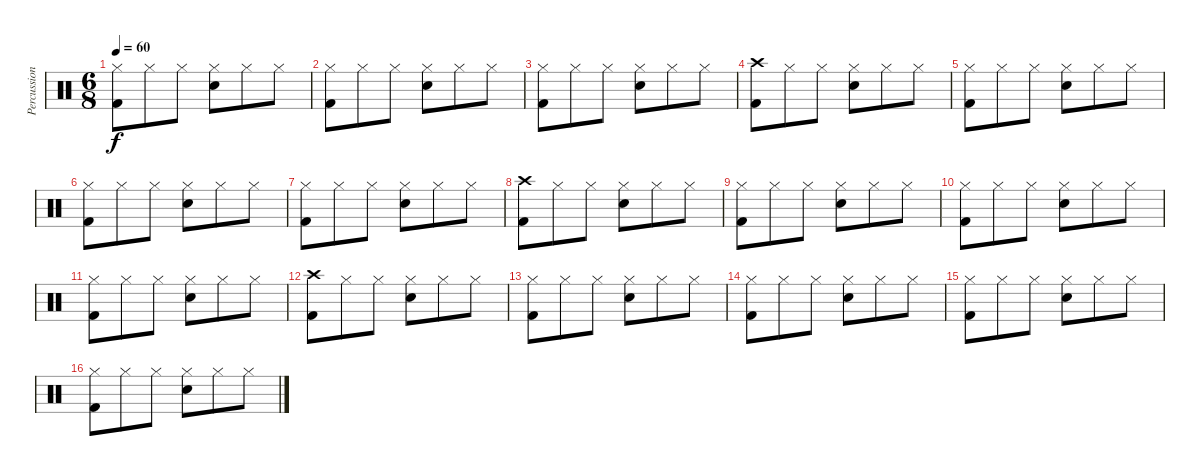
\track ("Percussion" "Percussion") {instrument percussion}
\staff {score}
\articulation defaults
\ts (6 8)
\tempo 60
\clef neutral
\ks c
("Hi-Hat (closed)" "Kick (hit) 2").8{dy f} "Hi-Hat (closed)".8 "Hi-Hat (closed)".8 ("Hi-Hat (closed)" "Electric Snare (hit)").8 "Hi-Hat (closed)".8 "Hi-Hat (closed)".8 |
("Hi-Hat (closed)" "Kick (hit) 2").8 "Hi-Hat (closed)".8 "Hi-Hat (closed)".8 ("Hi-Hat (closed)" "Electric Snare (hit)").8 "Hi-Hat (closed)".8 "Hi-Hat (closed)".8 |
("Hi-Hat (closed)" "Kick (hit) 2").8 "Hi-Hat (closed)".8 "Hi-Hat (closed)".8 ("Hi-Hat (closed)" "Electric Snare (hit)").8 "Hi-Hat (closed)".8 "Hi-Hat (closed)".8 |
("Crash high (hit)" "Kick (hit) 2").8 "Hi-Hat (closed)".8 "Hi-Hat (closed)".8 ("Hi-Hat (closed)" "Electric Snare (hit)").8 "Hi-Hat (closed)".8 "Hi-Hat (closed)".8 |
("Hi-Hat (closed)" "Kick (hit) 2").8 "Hi-Hat (closed)".8 "Hi-Hat (closed)".8 ("Hi-Hat (closed)" "Electric Snare (hit)").8 "Hi-Hat (closed)".8 "Hi-Hat (closed)".8 |
("Hi-Hat (closed)" "Kick (hit) 2").8 "Hi-Hat (closed)".8 "Hi-Hat (closed)".8 ("Hi-Hat (closed)" "Electric Snare (hit)").8 "Hi-Hat (closed)".8 "Hi-Hat (closed)".8 |
("Hi-Hat (closed)" "Kick (hit) 2").8 "Hi-Hat (closed)".8 "Hi-Hat (closed)".8 ("Hi-Hat (closed)" "Electric Snare (hit)").8 "Hi-Hat (closed)".8 "Hi-Hat (closed)".8 |
("Crash high (hit)" "Kick (hit) 2").8 "Hi-Hat (closed)".8 "Hi-Hat (closed)".8 ("Hi-Hat (closed)" "Electric Snare (hit)").8 "Hi-Hat (closed)".8 "Hi-Hat (closed)".8 |
("Hi-Hat (closed)" "Kick (hit) 2").8 "Hi-Hat (closed)".8 "Hi-Hat (closed)".8 ("Hi-Hat (closed)" "Electric Snare (hit)").8 "Hi-Hat (closed)".8 "Hi-Hat (closed)".8 |
("Hi-Hat (closed)" "Kick (hit) 2").8 "Hi-Hat (closed)".8 "Hi-Hat (closed)".8 ("Hi-Hat (closed)" "Electric Snare (hit)").8 "Hi-Hat (closed)".8 "Hi-Hat (closed)".8 |
("Hi-Hat (closed)" "Kick (hit) 2").8 "Hi-Hat (closed)".8 "Hi-Hat (closed)".8 ("Hi-Hat (closed)" "Electric Snare (hit)").8 "Hi-Hat (closed)".8 "Hi-Hat (closed)".8 |
("Crash high (hit)" "Kick (hit) 2").8 "Hi-Hat (closed)".8 "Hi-Hat (closed)".8 ("Hi-Hat (closed)" "Electric Snare (hit)").8 "Hi-Hat (closed)".8 "Hi-Hat (closed)".8 |
("Hi-Hat (closed)" "Kick (hit) 2").8 "Hi-Hat (closed)".8 "Hi-Hat (closed)".8 ("Hi-Hat (closed)" "Electric Snare (hit)").8 "Hi-Hat (closed)".8 "Hi-Hat (closed)".8 |
("Hi-Hat (closed)" "Kick (hit) 2").8 "Hi-Hat (closed)".8 "Hi-Hat (closed)".8 ("Hi-Hat (closed)" "Electric Snare (hit)").8 "Hi-Hat (closed)".8 "Hi-Hat (closed)".8 |
("Hi-Hat (closed)" "Kick (hit) 2").8 "Hi-Hat (closed)".8 "Hi-Hat (closed)".8 ("Hi-Hat (closed)" "Electric Snare (hit)").8 "Hi-Hat (closed)".8 "Hi-Hat (closed)".8 |
("Hi-Hat (closed)" "Kick (hit) 2").8 "Hi-Hat (closed)".8 "Hi-Hat (closed)".8 ("Hi-Hat (closed)" "Electric Snare (hit)").8 "Hi-Hat (closed)".8 "Hi-Hat (closed)".8
